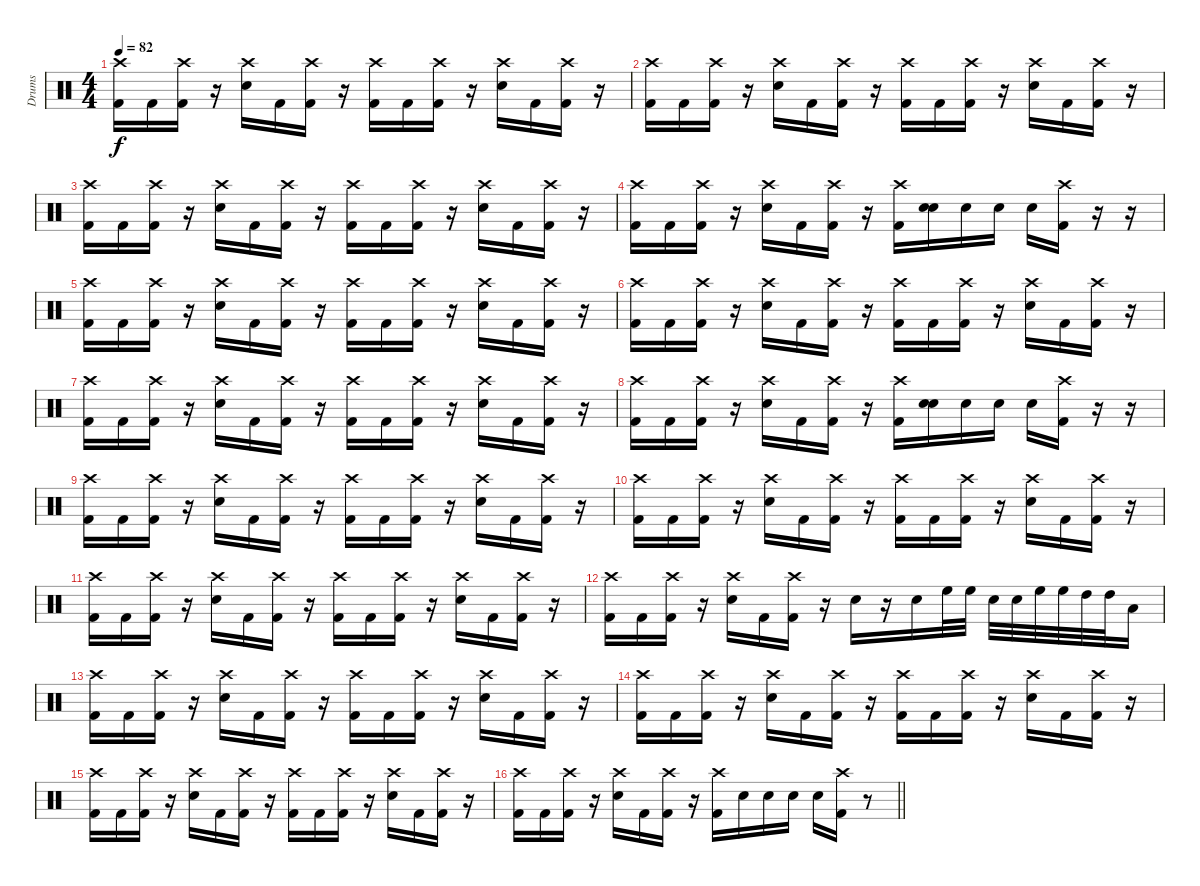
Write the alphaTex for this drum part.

\track ("Drums" "Drums") {instrument percussion}
\staff {score}
\articulation defaults
\ts (4 4)
\tempo 82
\clef neutral
\ks c
("Crash high (hit)" "Kick (hit) 2").16{dy f} "Kick (hit) 2".16 ("Crash high (hit)" "Kick (hit) 2").16 r.16 ("Crash high (hit)" "Electric Snare (hit)").16 "Kick (hit) 2".16 ("Crash high (hit)" "Kick (hit) 2").16 r.16 ("Crash high (hit)" "Kick (hit) 2").16 "Kick (hit) 2".16 ("Crash high (hit)" "Kick (hit) 2").16 r.16 ("Crash high (hit)" "Electric Snare (hit)").16 "Kick (hit) 2".16 ("Crash high (hit)" "Kick (hit) 2").16 r.16 |
("Crash high (hit)" "Kick (hit) 2").16 "Kick (hit) 2".16 ("Crash high (hit)" "Kick (hit) 2").16 r.16 ("Crash high (hit)" "Electric Snare (hit)").16 "Kick (hit) 2".16 ("Crash high (hit)" "Kick (hit) 2").16 r.16 ("Crash high (hit)" "Kick (hit) 2").16 "Kick (hit) 2".16 ("Crash high (hit)" "Kick (hit) 2").16 r.16 ("Crash high (hit)" "Electric Snare (hit)").16 "Kick (hit) 2".16 ("Crash high (hit)" "Kick (hit) 2").16 r.16 |
("Crash high (hit)" "Kick (hit) 2").16 "Kick (hit) 2".16 ("Crash high (hit)" "Kick (hit) 2").16 r.16 ("Crash high (hit)" "Electric Snare (hit)").16 "Kick (hit) 2".16 ("Crash high (hit)" "Kick (hit) 2").16 r.16 ("Crash high (hit)" "Kick (hit) 2").16 "Kick (hit) 2".16 ("Crash high (hit)" "Kick (hit) 2").16 r.16 ("Crash high (hit)" "Electric Snare (hit)").16 "Kick (hit) 2".16 ("Crash high (hit)" "Kick (hit) 2").16 r.16 |
("Crash high (hit)" "Kick (hit) 2").16 "Kick (hit) 2".16 ("Crash high (hit)" "Kick (hit) 2").16 r.16 ("Crash high (hit)" "Electric Snare (hit)").16 "Kick (hit) 2".16 ("Crash high (hit)" "Kick (hit) 2").16 r.16 ("Crash high (hit)" "Kick (hit) 2").16 ("Electric Snare (hit)" "Electric Snare (hit)").16 "Electric Snare (hit)".16 "Electric Snare (hit)".16 "Electric Snare (hit)".16 ("Crash high (hit)" "Kick (hit) 2").16 r.16 r.16 |
("Crash high (hit)" "Kick (hit) 2").16 "Kick (hit) 2".16 ("Crash high (hit)" "Kick (hit) 2").16 r.16 ("Crash high (hit)" "Electric Snare (hit)").16 "Kick (hit) 2".16 ("Crash high (hit)" "Kick (hit) 2").16 r.16 ("Crash high (hit)" "Kick (hit) 2").16 "Kick (hit) 2".16 ("Crash high (hit)" "Kick (hit) 2").16 r.16 ("Crash high (hit)" "Electric Snare (hit)").16 "Kick (hit) 2".16 ("Crash high (hit)" "Kick (hit) 2").16 r.16 |
("Crash high (hit)" "Kick (hit) 2").16 "Kick (hit) 2".16 ("Crash high (hit)" "Kick (hit) 2").16 r.16 ("Crash high (hit)" "Electric Snare (hit)").16 "Kick (hit) 2".16 ("Crash high (hit)" "Kick (hit) 2").16 r.16 ("Crash high (hit)" "Kick (hit) 2").16 "Kick (hit) 2".16 ("Crash high (hit)" "Kick (hit) 2").16 r.16 ("Crash high (hit)" "Electric Snare (hit)").16 "Kick (hit) 2".16 ("Crash high (hit)" "Kick (hit) 2").16 r.16 |
("Crash high (hit)" "Kick (hit) 2").16 "Kick (hit) 2".16 ("Crash high (hit)" "Kick (hit) 2").16 r.16 ("Crash high (hit)" "Electric Snare (hit)").16 "Kick (hit) 2".16 ("Crash high (hit)" "Kick (hit) 2").16 r.16 ("Crash high (hit)" "Kick (hit) 2").16 "Kick (hit) 2".16 ("Crash high (hit)" "Kick (hit) 2").16 r.16 ("Crash high (hit)" "Electric Snare (hit)").16 "Kick (hit) 2".16 ("Crash high (hit)" "Kick (hit) 2").16 r.16 |
("Crash high (hit)" "Kick (hit) 2").16 "Kick (hit) 2".16 ("Crash high (hit)" "Kick (hit) 2").16 r.16 ("Crash high (hit)" "Electric Snare (hit)").16 "Kick (hit) 2".16 ("Crash high (hit)" "Kick (hit) 2").16 r.16 ("Crash high (hit)" "Kick (hit) 2").16 ("Electric Snare (hit)" "Electric Snare (hit)").16 "Electric Snare (hit)".16 "Electric Snare (hit)".16 "Electric Snare (hit)".16 ("Crash high (hit)" "Kick (hit) 2").16 r.16 r.16 |
("Crash high (hit)" "Kick (hit) 2").16 "Kick (hit) 2".16 ("Crash high (hit)" "Kick (hit) 2").16 r.16 ("Crash high (hit)" "Electric Snare (hit)").16 "Kick (hit) 2".16 ("Crash high (hit)" "Kick (hit) 2").16 r.16 ("Crash high (hit)" "Kick (hit) 2").16 "Kick (hit) 2".16 ("Crash high (hit)" "Kick (hit) 2").16 r.16 ("Crash high (hit)" "Electric Snare (hit)").16 "Kick (hit) 2".16 ("Crash high (hit)" "Kick (hit) 2").16 r.16 |
("Crash high (hit)" "Kick (hit) 2").16 "Kick (hit) 2".16 ("Crash high (hit)" "Kick (hit) 2").16 r.16 ("Crash high (hit)" "Electric Snare (hit)").16 "Kick (hit) 2".16 ("Crash high (hit)" "Kick (hit) 2").16 r.16 ("Crash high (hit)" "Kick (hit) 2").16 "Kick (hit) 2".16 ("Crash high (hit)" "Kick (hit) 2").16 r.16 ("Crash high (hit)" "Electric Snare (hit)").16 "Kick (hit) 2".16 ("Crash high (hit)" "Kick (hit) 2").16 r.16 |
("Crash high (hit)" "Kick (hit) 2").16 "Kick (hit) 2".16 ("Crash high (hit)" "Kick (hit) 2").16 r.16 ("Crash high (hit)" "Electric Snare (hit)").16 "Kick (hit) 2".16 ("Crash high (hit)" "Kick (hit) 2").16 r.16 ("Crash high (hit)" "Kick (hit) 2").16 "Kick (hit) 2".16 ("Crash high (hit)" "Kick (hit) 2").16 r.16 ("Crash high (hit)" "Electric Snare (hit)").16 "Kick (hit) 2".16 ("Crash high (hit)" "Kick (hit) 2").16 r.16 |
("Crash high (hit)" "Kick (hit) 2").16 "Kick (hit) 2".16 ("Crash high (hit)" "Kick (hit) 2").16 r.16 ("Crash high (hit)" "Electric Snare (hit)").16 "Kick (hit) 2".16 ("Crash high (hit)" "Kick (hit) 2").16 r.16 "Electric Snare (hit)".16 r.16 "Electric Snare (hit)".16 "High Floor Tom (hit)".32 "High Floor Tom (hit)".32 "Electric Snare (hit)".32 "Electric Snare (hit)".32 "High Floor Tom (hit)".32 "High Floor Tom (hit)".32 "High Tom (hit)".32 "High Tom (hit)".32 "Low Floor Tom (hit)".16 |
("Crash high (hit)" "Kick (hit) 2").16 "Kick (hit) 2".16 ("Crash high (hit)" "Kick (hit) 2").16 r.16 ("Crash high (hit)" "Electric Snare (hit)").16 "Kick (hit) 2".16 ("Crash high (hit)" "Kick (hit) 2").16 r.16 ("Crash high (hit)" "Kick (hit) 2").16 "Kick (hit) 2".16 ("Crash high (hit)" "Kick (hit) 2").16 r.16 ("Crash high (hit)" "Electric Snare (hit)").16 "Kick (hit) 2".16 ("Crash high (hit)" "Kick (hit) 2").16 r.16 |
("Crash high (hit)" "Kick (hit) 2").16 "Kick (hit) 2".16 ("Crash high (hit)" "Kick (hit) 2").16 r.16 ("Crash high (hit)" "Electric Snare (hit)").16 "Kick (hit) 2".16 ("Crash high (hit)" "Kick (hit) 2").16 r.16 ("Crash high (hit)" "Kick (hit) 2").16 "Kick (hit) 2".16 ("Crash high (hit)" "Kick (hit) 2").16 r.16 ("Crash high (hit)" "Electric Snare (hit)").16 "Kick (hit) 2".16 ("Crash high (hit)" "Kick (hit) 2").16 r.16 |
("Crash high (hit)" "Kick (hit) 2").16 "Kick (hit) 2".16 ("Crash high (hit)" "Kick (hit) 2").16 r.16 ("Crash high (hit)" "Electric Snare (hit)").16 "Kick (hit) 2".16 ("Crash high (hit)" "Kick (hit) 2").16 r.16 ("Crash high (hit)" "Kick (hit) 2").16 "Kick (hit) 2".16 ("Crash high (hit)" "Kick (hit) 2").16 r.16 ("Crash high (hit)" "Electric Snare (hit)").16 "Kick (hit) 2".16 ("Crash high (hit)" "Kick (hit) 2").16 r.16 |
\barLineRight lightlight
("Crash high (hit)" "Kick (hit) 2").16 "Kick (hit) 2".16 ("Crash high (hit)" "Kick (hit) 2").16 r.16 ("Crash high (hit)" "Electric Snare (hit)").16 "Kick (hit) 2".16 ("Crash high (hit)" "Kick (hit) 2").16 r.16 ("Crash high (hit)" "Kick (hit) 2").16 "Electric Snare (hit)".16 "Electric Snare (hit)".16 "Electric Snare (hit)".16 "Electric Snare (hit)".16 ("Crash high (hit)" "Kick (hit) 2").16 r.8
